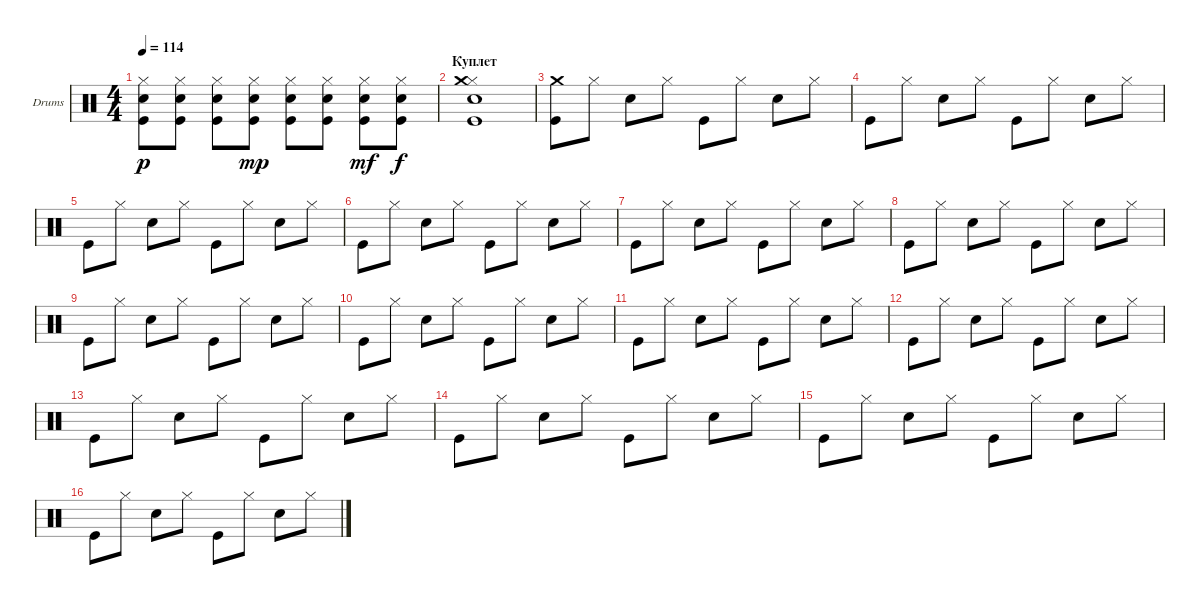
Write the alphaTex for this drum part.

\defaultSystemsLayout 4
\bracketExtendMode groupsimilarinstruments
\firstSystemTrackNameOrientation horizontal
\otherSystemsTrackNameOrientation horizontal
\track ("Е. Кулаков" "Drums") {instrument percussion}
\staff {score}
\articulation defaults
\ts (4 4)
\tempo 114
\clef neutral
\ks c
("Hi-Hat (closed)" "Kick (hit)" "Snare (hit) 2").8{dy p} ("Hi-Hat (closed)" "Kick (hit)" "Snare (hit) 2").8 ("Hi-Hat (closed)" "Kick (hit)" "Snare (hit) 2").8 ("Hi-Hat (closed)" "Kick (hit)" "Snare (hit) 2").8{dy mp} ("Hi-Hat (closed)" "Kick (hit)" "Snare (hit) 2").8 ("Hi-Hat (closed)" "Kick (hit)" "Snare (hit) 2").8 ("Hi-Hat (closed)" "Kick (hit)" "Snare (hit) 2").8{dy mf} ("Hi-Hat (closed)" "Kick (hit)" "Snare (hit) 2").8{dy f} |
\section ("" "Куплет")
("Hi-Hat (closed)" "Kick (hit)" "Snare (hit) 2" "Crash medium (hit)").1 |
("Kick (hit)" "Crash medium (hit)").8 "Hi-Hat (closed)".8 "Snare (hit) 2".8 "Hi-Hat (closed)".8 "Kick (hit)".8 "Hi-Hat (closed)".8 "Snare (hit) 2".8 "Hi-Hat (closed)".8 |
"Kick (hit)".8 "Hi-Hat (closed)".8 "Snare (hit) 2".8 "Hi-Hat (closed)".8 "Kick (hit)".8 "Hi-Hat (closed)".8 "Snare (hit) 2".8 "Hi-Hat (closed)".8 |
"Kick (hit)".8 "Hi-Hat (closed)".8 "Snare (hit) 2".8 "Hi-Hat (closed)".8 "Kick (hit)".8 "Hi-Hat (closed)".8 "Snare (hit) 2".8 "Hi-Hat (closed)".8 |
"Kick (hit)".8 "Hi-Hat (closed)".8 "Snare (hit) 2".8 "Hi-Hat (closed)".8 "Kick (hit)".8 "Hi-Hat (closed)".8 "Snare (hit) 2".8 "Hi-Hat (closed)".8 |
"Kick (hit)".8 "Hi-Hat (closed)".8 "Snare (hit) 2".8 "Hi-Hat (closed)".8 "Kick (hit)".8 "Hi-Hat (closed)".8 "Snare (hit) 2".8 "Hi-Hat (closed)".8 |
"Kick (hit)".8 "Hi-Hat (closed)".8 "Snare (hit) 2".8 "Hi-Hat (closed)".8 "Kick (hit)".8 "Hi-Hat (closed)".8 "Snare (hit) 2".8 "Hi-Hat (closed)".8 |
"Kick (hit)".8 "Hi-Hat (closed)".8 "Snare (hit) 2".8 "Hi-Hat (closed)".8 "Kick (hit)".8 "Hi-Hat (closed)".8 "Snare (hit) 2".8 "Hi-Hat (closed)".8 |
"Kick (hit)".8 "Hi-Hat (closed)".8 "Snare (hit) 2".8 "Hi-Hat (closed)".8 "Kick (hit)".8 "Hi-Hat (closed)".8 "Snare (hit) 2".8 "Hi-Hat (closed)".8 |
"Kick (hit)".8 "Hi-Hat (closed)".8 "Snare (hit) 2".8 "Hi-Hat (closed)".8 "Kick (hit)".8 "Hi-Hat (closed)".8 "Snare (hit) 2".8 "Hi-Hat (closed)".8 |
"Kick (hit)".8 "Hi-Hat (closed)".8 "Snare (hit) 2".8 "Hi-Hat (closed)".8 "Kick (hit)".8 "Hi-Hat (closed)".8 "Snare (hit) 2".8 "Hi-Hat (closed)".8 |
"Kick (hit)".8 "Hi-Hat (closed)".8 "Snare (hit) 2".8 "Hi-Hat (closed)".8 "Kick (hit)".8 "Hi-Hat (closed)".8 "Snare (hit) 2".8 "Hi-Hat (closed)".8 |
"Kick (hit)".8 "Hi-Hat (closed)".8 "Snare (hit) 2".8 "Hi-Hat (closed)".8 "Kick (hit)".8 "Hi-Hat (closed)".8 "Snare (hit) 2".8 "Hi-Hat (closed)".8 |
"Kick (hit)".8 "Hi-Hat (closed)".8 "Snare (hit) 2".8 "Hi-Hat (closed)".8 "Kick (hit)".8 "Hi-Hat (closed)".8 "Snare (hit) 2".8 "Hi-Hat (closed)".8 |
"Kick (hit)".8 "Hi-Hat (closed)".8 "Snare (hit) 2".8 "Hi-Hat (closed)".8 "Kick (hit)".8 "Hi-Hat (closed)".8 "Snare (hit) 2".8 "Hi-Hat (closed)".8
